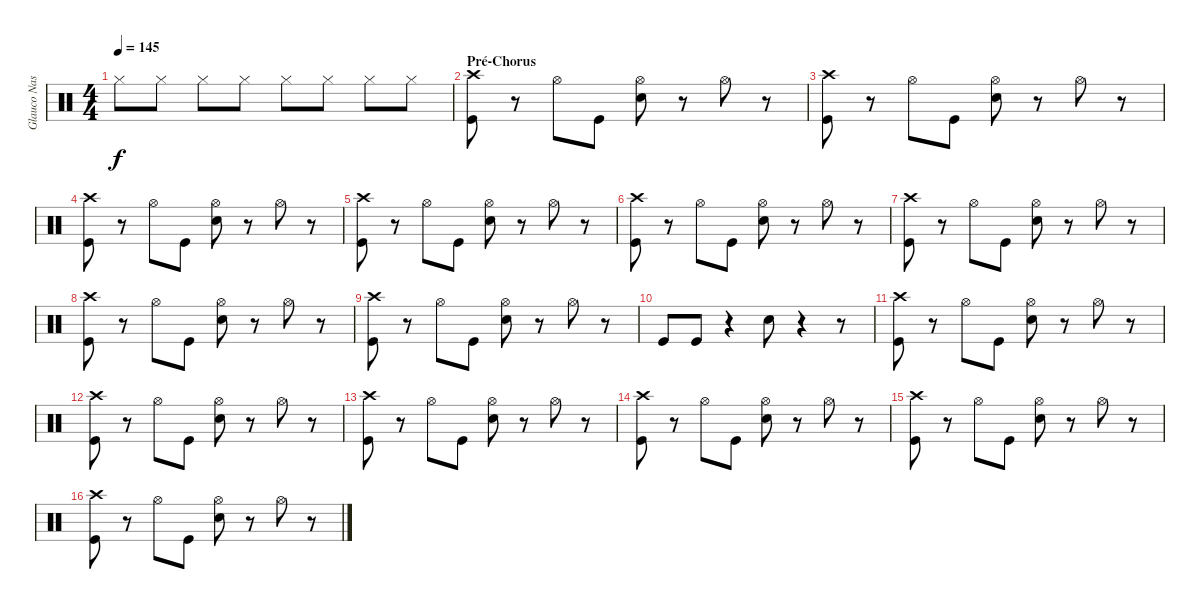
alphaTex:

\track ("Glauco Nastácia" "Glauco Nas") {instrument percussion}
\staff {score}
\articulation defaults
\ts (4 4)
\tempo 145
\clef neutral
\ks c "Hi-Hat (closed)".8{dy f} "Hi-Hat (closed)".8 "Hi-Hat (closed)".8 "Hi-Hat (closed)".8 "Hi-Hat (closed)".8 "Hi-Hat (closed)".8 "Hi-Hat (closed)".8 "Hi-Hat (closed)".8
|
\section ("" "Pré-Chorus")
("Crash high (hit)" "Kick (hit)").8 r.8 "Hi-Hat (open)".8 "Kick (hit)".8 ("Hi-Hat (open)" "Electric Snare (hit)").8 r.8 "Hi-Hat (open)".8 r.8 |
("Crash high (hit)" "Kick (hit)").8 r.8 "Hi-Hat (open)".8 "Kick (hit)".8 ("Hi-Hat (open)" "Electric Snare (hit)").8 r.8 "Hi-Hat (open)".8 r.8 |
("Crash high (hit)" "Kick (hit)").8 r.8 "Hi-Hat (open)".8 "Kick (hit)".8 ("Hi-Hat (open)" "Electric Snare (hit)").8 r.8 "Hi-Hat (open)".8 r.8 |
("Crash high (hit)" "Kick (hit)").8 r.8 "Hi-Hat (open)".8 "Kick (hit)".8 ("Hi-Hat (open)" "Electric Snare (hit)").8 r.8 "Hi-Hat (open)".8 r.8 |
("Crash high (hit)" "Kick (hit)").8 r.8 "Hi-Hat (open)".8 "Kick (hit)".8 ("Hi-Hat (open)" "Electric Snare (hit)").8 r.8 "Hi-Hat (open)".8 r.8 |
("Crash high (hit)" "Kick (hit)").8 r.8 "Hi-Hat (open)".8 "Kick (hit)".8 ("Hi-Hat (open)" "Electric Snare (hit)").8 r.8 "Hi-Hat (open)".8 r.8 |
("Crash high (hit)" "Kick (hit)").8 r.8 "Hi-Hat (open)".8 "Kick (hit)".8 ("Hi-Hat (open)" "Electric Snare (hit)").8 r.8 "Hi-Hat (open)".8 r.8 |
("Crash high (hit)" "Kick (hit)").8 r.8 "Hi-Hat (open)".8 "Kick (hit)".8 ("Hi-Hat (open)" "Electric Snare (hit)").8 r.8 "Hi-Hat (open)".8 r.8 |
"Kick (hit)".8 "Kick (hit)".8 r.4 "Electric Snare (hit)".8 r.4 r.8 |
("Crash high (hit)" "Kick (hit)").8 r.8 "Hi-Hat (open)".8 "Kick (hit)".8 ("Hi-Hat (open)" "Electric Snare (hit)").8 r.8 "Hi-Hat (open)".8 r.8 |
("Crash high (hit)" "Kick (hit)").8 r.8 "Hi-Hat (open)".8 "Kick (hit)".8 ("Hi-Hat (open)" "Electric Snare (hit)").8 r.8 "Hi-Hat (open)".8 r.8 |
("Crash high (hit)" "Kick (hit)").8 r.8 "Hi-Hat (open)".8 "Kick (hit)".8 ("Hi-Hat (open)" "Electric Snare (hit)").8 r.8 "Hi-Hat (open)".8 r.8 |
("Crash high (hit)" "Kick (hit)").8 r.8 "Hi-Hat (open)".8 "Kick (hit)".8 ("Hi-Hat (open)" "Electric Snare (hit)").8 r.8 "Hi-Hat (open)".8 r.8 |
("Crash high (hit)" "Kick (hit)").8 r.8 "Hi-Hat (open)".8 "Kick (hit)".8 ("Hi-Hat (open)" "Electric Snare (hit)").8 r.8 "Hi-Hat (open)".8 r.8 |
("Crash high (hit)" "Kick (hit)").8 r.8 "Hi-Hat (open)".8 "Kick (hit)".8 ("Hi-Hat (open)" "Electric Snare (hit)").8 r.8 "Hi-Hat (open)".8 r.8
